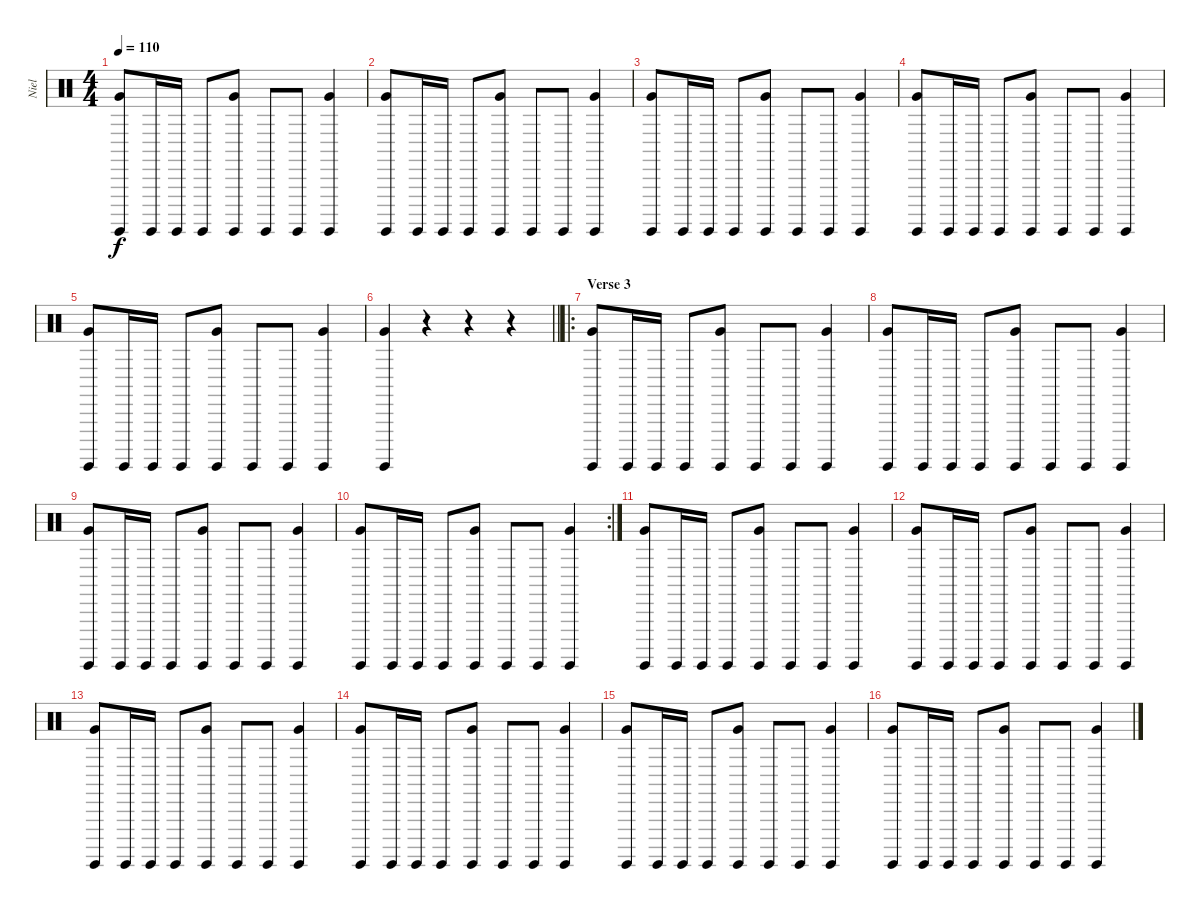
\track ("Niel" "Niel") {instrument percussion bank 1}
\staff {score}
\articulation defaults
\ts (4 4)
\tempo 110
\clef neutral
\ks c
("Very Low Tom (hit)" "Surdo (hit)").8{dy f} "Surdo (hit)".16 "Surdo (hit)".16 "Surdo (hit)".8 ("Very Low Tom (hit)" "Surdo (hit)").8 "Surdo (hit)".8 "Surdo (hit)".8 ("Very Low Tom (hit)" "Surdo (hit)").4 |
("Very Low Tom (hit)" "Surdo (hit)").8 "Surdo (hit)".16 "Surdo (hit)".16 "Surdo (hit)".8 ("Very Low Tom (hit)" "Surdo (hit)").8 "Surdo (hit)".8 "Surdo (hit)".8 ("Very Low Tom (hit)" "Surdo (hit)").4 |
("Very Low Tom (hit)" "Surdo (hit)").8 "Surdo (hit)".16 "Surdo (hit)".16 "Surdo (hit)".8 ("Very Low Tom (hit)" "Surdo (hit)").8 "Surdo (hit)".8 "Surdo (hit)".8 ("Very Low Tom (hit)" "Surdo (hit)").4 |
("Very Low Tom (hit)" "Surdo (hit)").8 "Surdo (hit)".16 "Surdo (hit)".16 "Surdo (hit)".8 ("Very Low Tom (hit)" "Surdo (hit)").8 "Surdo (hit)".8 "Surdo (hit)".8 ("Very Low Tom (hit)" "Surdo (hit)").4 |
("Very Low Tom (hit)" "Surdo (hit)").8 "Surdo (hit)".16 "Surdo (hit)".16 "Surdo (hit)".8 ("Very Low Tom (hit)" "Surdo (hit)").8 "Surdo (hit)".8 "Surdo (hit)".8 ("Very Low Tom (hit)" "Surdo (hit)").4 |
\barLineRight lightlight
("Very Low Tom (hit)" "Surdo (hit)").4 r.4 r.4 r.4 |
\ro
\section ("" "Verse 3")
("Very Low Tom (hit)" "Surdo (hit)").8 "Surdo (hit)".16 "Surdo (hit)".16 "Surdo (hit)".8 ("Very Low Tom (hit)" "Surdo (hit)").8 "Surdo (hit)".8 "Surdo (hit)".8 ("Very Low Tom (hit)" "Surdo (hit)").4 |
("Very Low Tom (hit)" "Surdo (hit)").8 "Surdo (hit)".16 "Surdo (hit)".16 "Surdo (hit)".8 ("Very Low Tom (hit)" "Surdo (hit)").8 "Surdo (hit)".8 "Surdo (hit)".8 ("Very Low Tom (hit)" "Surdo (hit)").4 |
("Very Low Tom (hit)" "Surdo (hit)").8 "Surdo (hit)".16 "Surdo (hit)".16 "Surdo (hit)".8 ("Very Low Tom (hit)" "Surdo (hit)").8 "Surdo (hit)".8 "Surdo (hit)".8 ("Very Low Tom (hit)" "Surdo (hit)").4 |
\rc 2
("Very Low Tom (hit)" "Surdo (hit)").8 "Surdo (hit)".16 "Surdo (hit)".16 "Surdo (hit)".8 ("Very Low Tom (hit)" "Surdo (hit)").8 "Surdo (hit)".8 "Surdo (hit)".8 ("Very Low Tom (hit)" "Surdo (hit)").4 |
("Very Low Tom (hit)" "Surdo (hit)").8 "Surdo (hit)".16 "Surdo (hit)".16 "Surdo (hit)".8 ("Very Low Tom (hit)" "Surdo (hit)").8 "Surdo (hit)".8 "Surdo (hit)".8 ("Very Low Tom (hit)" "Surdo (hit)").4 |
("Very Low Tom (hit)" "Surdo (hit)").8 "Surdo (hit)".16 "Surdo (hit)".16 "Surdo (hit)".8 ("Very Low Tom (hit)" "Surdo (hit)").8 "Surdo (hit)".8 "Surdo (hit)".8 ("Very Low Tom (hit)" "Surdo (hit)").4 |
("Very Low Tom (hit)" "Surdo (hit)").8 "Surdo (hit)".16 "Surdo (hit)".16 "Surdo (hit)".8 ("Very Low Tom (hit)" "Surdo (hit)").8 "Surdo (hit)".8 "Surdo (hit)".8 ("Very Low Tom (hit)" "Surdo (hit)").4 |
("Very Low Tom (hit)" "Surdo (hit)").8 "Surdo (hit)".16 "Surdo (hit)".16 "Surdo (hit)".8 ("Very Low Tom (hit)" "Surdo (hit)").8 "Surdo (hit)".8 "Surdo (hit)".8 ("Very Low Tom (hit)" "Surdo (hit)").4 |
("Very Low Tom (hit)" "Surdo (hit)").8 "Surdo (hit)".16 "Surdo (hit)".16 "Surdo (hit)".8 ("Very Low Tom (hit)" "Surdo (hit)").8 "Surdo (hit)".8 "Surdo (hit)".8 ("Very Low Tom (hit)" "Surdo (hit)").4 |
("Very Low Tom (hit)" "Surdo (hit)").8 "Surdo (hit)".16 "Surdo (hit)".16 "Surdo (hit)".8 ("Very Low Tom (hit)" "Surdo (hit)").8 "Surdo (hit)".8 "Surdo (hit)".8 ("Very Low Tom (hit)" "Surdo (hit)").4
